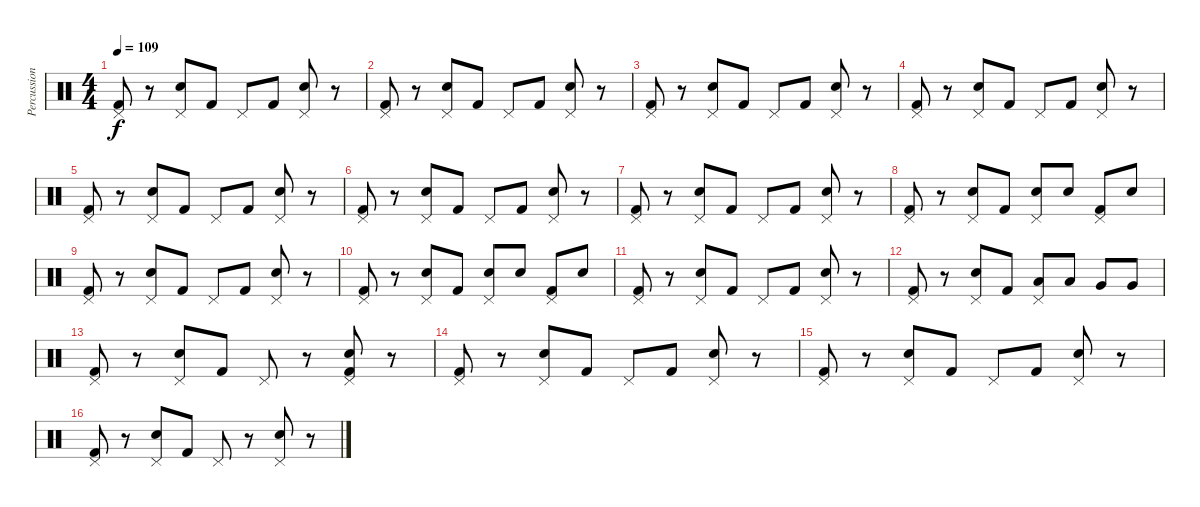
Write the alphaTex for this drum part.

\track ("Percussion" "Percussion") {instrument percussion}
\staff {score}
\articulation defaults
\ts (4 4)
\tempo 109
\clef neutral
\ks c
("Pedal Hi-Hat (hit)" "Kick (hit) 2").8{dy f} r.8 ("Pedal Hi-Hat (hit)" "Snare (hit) 2").8 "Kick (hit) 2".8 "Pedal Hi-Hat (hit)".8 "Kick (hit) 2".8 ("Pedal Hi-Hat (hit)" "Snare (hit) 2").8 r.8 |
("Pedal Hi-Hat (hit)" "Kick (hit) 2").8 r.8 ("Pedal Hi-Hat (hit)" "Snare (hit) 2").8 "Kick (hit) 2".8 "Pedal Hi-Hat (hit)".8 "Kick (hit) 2".8 ("Pedal Hi-Hat (hit)" "Snare (hit) 2").8 r.8 |
("Pedal Hi-Hat (hit)" "Kick (hit) 2").8 r.8 ("Pedal Hi-Hat (hit)" "Snare (hit) 2").8 "Kick (hit) 2".8 "Pedal Hi-Hat (hit)".8 "Kick (hit) 2".8 ("Pedal Hi-Hat (hit)" "Snare (hit) 2").8 r.8 |
("Pedal Hi-Hat (hit)" "Kick (hit) 2").8 r.8 ("Pedal Hi-Hat (hit)" "Snare (hit) 2").8 "Kick (hit) 2".8 "Pedal Hi-Hat (hit)".8 "Kick (hit) 2".8 ("Pedal Hi-Hat (hit)" "Snare (hit) 2").8 r.8 |
("Pedal Hi-Hat (hit)" "Kick (hit) 2").8 r.8 ("Pedal Hi-Hat (hit)" "Snare (hit) 2").8 "Kick (hit) 2".8 "Pedal Hi-Hat (hit)".8 "Kick (hit) 2".8 ("Pedal Hi-Hat (hit)" "Snare (hit) 2").8 r.8 |
("Pedal Hi-Hat (hit)" "Kick (hit) 2").8 r.8 ("Pedal Hi-Hat (hit)" "Snare (hit) 2").8 "Kick (hit) 2".8 "Pedal Hi-Hat (hit)".8 "Kick (hit) 2".8 ("Pedal Hi-Hat (hit)" "Snare (hit) 2").8 r.8 |
("Pedal Hi-Hat (hit)" "Kick (hit) 2").8 r.8 ("Pedal Hi-Hat (hit)" "Snare (hit) 2").8 "Kick (hit) 2".8 "Pedal Hi-Hat (hit)".8 "Kick (hit) 2".8 ("Pedal Hi-Hat (hit)" "Snare (hit) 2").8 r.8 |
("Pedal Hi-Hat (hit)" "Kick (hit) 2").8 r.8 ("Pedal Hi-Hat (hit)" "Snare (hit) 2").8 "Kick (hit) 2".8 ("Pedal Hi-Hat (hit)" "Snare (hit) 2").8 "Snare (hit) 2".8 ("Pedal Hi-Hat (hit)" "Kick (hit) 2").8 "Snare (hit) 2".8 |
("Pedal Hi-Hat (hit)" "Kick (hit) 2").8 r.8 ("Pedal Hi-Hat (hit)" "Snare (hit) 2").8 "Kick (hit) 2".8 "Pedal Hi-Hat (hit)".8 "Kick (hit) 2".8 ("Pedal Hi-Hat (hit)" "Snare (hit) 2").8 r.8 |
("Pedal Hi-Hat (hit)" "Kick (hit) 2").8 r.8 ("Pedal Hi-Hat (hit)" "Snare (hit) 2").8 "Kick (hit) 2".8 ("Pedal Hi-Hat (hit)" "Snare (hit) 2").8 "Snare (hit) 2".8 ("Pedal Hi-Hat (hit)" "Kick (hit) 2").8 "Snare (hit) 2".8 |
("Pedal Hi-Hat (hit)" "Kick (hit) 2").8 r.8 ("Pedal Hi-Hat (hit)" "Snare (hit) 2").8 "Kick (hit) 2".8 "Pedal Hi-Hat (hit)".8 "Kick (hit) 2".8 ("Pedal Hi-Hat (hit)" "Snare (hit) 2").8 r.8 |
("Pedal Hi-Hat (hit)" "Kick (hit) 2").8 r.8 ("Pedal Hi-Hat (hit)" "Snare (hit) 2").8 "Kick (hit) 2".8 ("Pedal Hi-Hat (hit)" "Low Tom (hit)").8{balance 0} "Low Tom (hit)".8 "Very Low Tom (hit)".8{balance 16} "Very Low Tom (hit)".8 |
("Pedal Hi-Hat (hit)" "Kick (hit) 2").8{balance 8} r.8 ("Pedal Hi-Hat (hit)" "Snare (hit) 2").8 "Kick (hit) 2".8 "Pedal Hi-Hat (hit)".8 r.8 ("Pedal Hi-Hat (hit)" "Snare (hit) 2" "Kick (hit) 2").8 r.8 |
("Pedal Hi-Hat (hit)" "Kick (hit) 2").8 r.8 ("Pedal Hi-Hat (hit)" "Snare (hit) 2").8 "Kick (hit) 2".8 "Pedal Hi-Hat (hit)".8 "Kick (hit) 2".8 ("Pedal Hi-Hat (hit)" "Snare (hit) 2").8 r.8 |
("Pedal Hi-Hat (hit)" "Kick (hit) 2").8 r.8 ("Pedal Hi-Hat (hit)" "Snare (hit) 2").8 "Kick (hit) 2".8 "Pedal Hi-Hat (hit)".8 "Kick (hit) 2".8 ("Pedal Hi-Hat (hit)" "Snare (hit) 2").8 r.8 |
("Pedal Hi-Hat (hit)" "Kick (hit) 2").8 r.8 ("Pedal Hi-Hat (hit)" "Snare (hit) 2").8 "Kick (hit) 2".8 "Pedal Hi-Hat (hit)".8 r.8 ("Pedal Hi-Hat (hit)" "Snare (hit) 2").8 r.8
